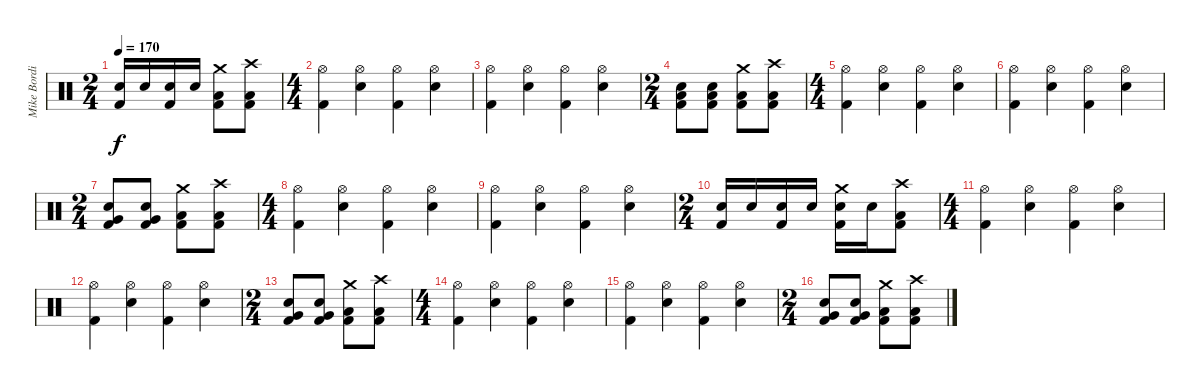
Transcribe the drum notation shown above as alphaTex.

\track ("Mike Bordin" "Mike Bordi") {instrument percussion}
\staff {score}
\articulation defaults
\ts (2 4)
\tempo 170
\clef neutral
\ks c
("Electric Snare (hit)" "Kick (hit) 2").16{dy f} "Electric Snare (hit)".16 ("Electric Snare (hit)" "Kick (hit) 2").16 "Electric Snare (hit)".16 ("Crash medium (hit)" "Low Floor Tom (hit)" "Kick (hit) 2").8 ("Crash high (hit)" "Low Floor Tom (hit)" "Kick (hit) 2").8 |
\ts (4 4)
("Hi-Hat (open)" "Kick (hit) 2").4 ("Hi-Hat (open)" "Electric Snare (hit)").4 ("Hi-Hat (open)" "Kick (hit) 2").4 ("Hi-Hat (open)" "Electric Snare (hit)").4 |
("Hi-Hat (open)" "Kick (hit) 2").4 ("Hi-Hat (open)" "Electric Snare (hit)").4 ("Hi-Hat (open)" "Kick (hit) 2").4 ("Hi-Hat (open)" "Electric Snare (hit)").4 |
\ts (2 4)
("Electric Snare (hit)" "Low Tom (hit)" "Kick (hit) 2").8 ("Electric Snare (hit)" "Low Tom (hit)" "Kick (hit) 2").8 ("Crash medium (hit)" "Low Floor Tom (hit)" "Kick (hit) 2").8 ("Crash high (hit)" "Low Floor Tom (hit)" "Kick (hit) 2").8 |
\ts (4 4)
("Hi-Hat (open)" "Kick (hit) 2").4 ("Hi-Hat (open)" "Electric Snare (hit)").4 ("Hi-Hat (open)" "Kick (hit) 2").4 ("Hi-Hat (open)" "Electric Snare (hit)").4 |
("Hi-Hat (open)" "Kick (hit) 2").4 ("Hi-Hat (open)" "Electric Snare (hit)").4 ("Hi-Hat (open)" "Kick (hit) 2").4 ("Hi-Hat (open)" "Electric Snare (hit)").4 |
\ts (2 4)
("Electric Snare (hit)" "Very Low Tom (hit)" "Kick (hit) 2").8 ("Electric Snare (hit)" "Very Low Tom (hit)" "Kick (hit) 2").8 ("Crash medium (hit)" "Low Floor Tom (hit)" "Kick (hit) 2").8 ("Crash high (hit)" "Low Floor Tom (hit)" "Kick (hit) 2").8 |
\ts (4 4)
("Hi-Hat (open)" "Kick (hit) 2").4 ("Hi-Hat (open)" "Electric Snare (hit)").4 ("Hi-Hat (open)" "Kick (hit) 2").4 ("Hi-Hat (open)" "Electric Snare (hit)").4 |
("Hi-Hat (open)" "Kick (hit) 2").4 ("Hi-Hat (open)" "Electric Snare (hit)").4 ("Hi-Hat (open)" "Kick (hit) 2").4 ("Hi-Hat (open)" "Electric Snare (hit)").4 |
\ts (2 4)
("Electric Snare (hit)" "Kick (hit) 2").16 "Electric Snare (hit)".16 ("Electric Snare (hit)" "Kick (hit) 2").16 "Electric Snare (hit)".16 ("Crash medium (hit)" "Electric Snare (hit)" "Kick (hit) 2").16 "Electric Snare (hit)".16 ("Crash high (hit)" "Low Floor Tom (hit)" "Kick (hit) 2").8 |
\ts (4 4)
("Hi-Hat (open)" "Kick (hit) 2").4 ("Hi-Hat (open)" "Electric Snare (hit)").4 ("Hi-Hat (open)" "Kick (hit) 2").4 ("Hi-Hat (open)" "Electric Snare (hit)").4 |
("Hi-Hat (open)" "Kick (hit) 2").4 ("Hi-Hat (open)" "Electric Snare (hit)").4 ("Hi-Hat (open)" "Kick (hit) 2").4 ("Hi-Hat (open)" "Electric Snare (hit)").4 |
\ts (2 4)
("Electric Snare (hit)" "Very Low Tom (hit)" "Kick (hit) 2").8 ("Electric Snare (hit)" "Very Low Tom (hit)" "Kick (hit) 2").8 ("Crash medium (hit)" "Low Floor Tom (hit)" "Kick (hit) 2").8 ("Crash high (hit)" "Low Floor Tom (hit)" "Kick (hit) 2").8 |
\ts (4 4)
("Hi-Hat (open)" "Kick (hit) 2").4 ("Hi-Hat (open)" "Electric Snare (hit)").4 ("Hi-Hat (open)" "Kick (hit) 2").4 ("Hi-Hat (open)" "Electric Snare (hit)").4 |
("Hi-Hat (open)" "Kick (hit) 2").4 ("Hi-Hat (open)" "Electric Snare (hit)").4 ("Hi-Hat (open)" "Kick (hit) 2").4 ("Hi-Hat (open)" "Electric Snare (hit)").4 |
\ts (2 4)
("Electric Snare (hit)" "Very Low Tom (hit)" "Kick (hit) 2").8 ("Electric Snare (hit)" "Very Low Tom (hit)" "Kick (hit) 2").8 ("Crash medium (hit)" "Low Floor Tom (hit)" "Kick (hit) 2").8 ("Crash high (hit)" "Low Floor Tom (hit)" "Kick (hit) 2").8
